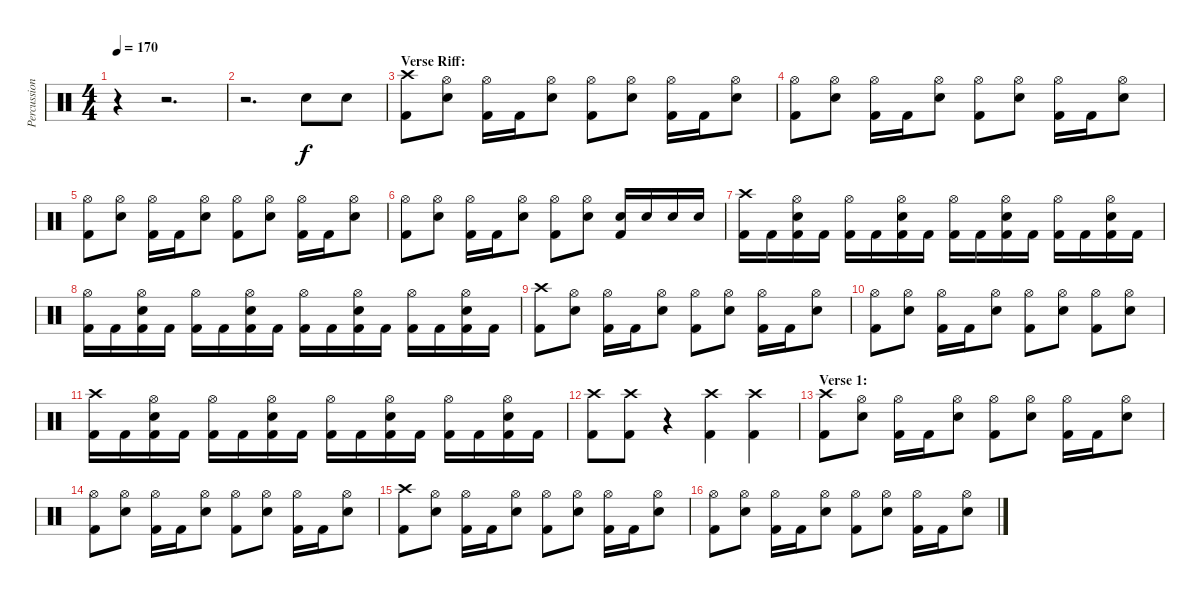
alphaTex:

\track ("Percussion" "Percussion") {instrument percussion}
\staff {score}
\articulation defaults
\ts (4 4)
\tempo 170
\clef neutral
\ks c
r.4{dy f} r.2{d} |
r.2{d} "Electric Snare (hit)".8 "Electric Snare (hit)".8 |
\section ("" "Verse Riff:")
("Crash high (hit)" "Kick (hit) 2").8 ("Hi-Hat (open)" "Electric Snare (hit)").8 ("Hi-Hat (open)" "Kick (hit) 2").16 "Kick (hit) 2".16 ("Hi-Hat (open)" "Electric Snare (hit)").8 ("Hi-Hat (open)" "Kick (hit) 2").8 ("Hi-Hat (open)" "Electric Snare (hit)").8 ("Hi-Hat (open)" "Kick (hit) 2").16 "Kick (hit) 2".16 ("Hi-Hat (open)" "Electric Snare (hit)").8 |
("Hi-Hat (open)" "Kick (hit) 2").8 ("Hi-Hat (open)" "Electric Snare (hit)").8 ("Hi-Hat (open)" "Kick (hit) 2").16 "Kick (hit) 2".16 ("Hi-Hat (open)" "Electric Snare (hit)").8 ("Hi-Hat (open)" "Kick (hit) 2").8 ("Hi-Hat (open)" "Electric Snare (hit)").8 ("Hi-Hat (open)" "Kick (hit) 2").16 "Kick (hit) 2".16 ("Hi-Hat (open)" "Electric Snare (hit)").8 |
("Hi-Hat (open)" "Kick (hit) 2").8 ("Hi-Hat (open)" "Electric Snare (hit)").8 ("Hi-Hat (open)" "Kick (hit) 2").16 "Kick (hit) 2".16 ("Hi-Hat (open)" "Electric Snare (hit)").8 ("Hi-Hat (open)" "Kick (hit) 2").8 ("Hi-Hat (open)" "Electric Snare (hit)").8 ("Hi-Hat (open)" "Kick (hit) 2").16 "Kick (hit) 2".16 ("Hi-Hat (open)" "Electric Snare (hit)").8 |
("Hi-Hat (open)" "Kick (hit) 2").8 ("Hi-Hat (open)" "Electric Snare (hit)").8 ("Hi-Hat (open)" "Kick (hit) 2").16 "Kick (hit) 2".16 ("Hi-Hat (open)" "Electric Snare (hit)").8 ("Hi-Hat (open)" "Kick (hit) 2").8 ("Hi-Hat (open)" "Electric Snare (hit)").8 ("Electric Snare (hit)" "Kick (hit) 2").16 "Electric Snare (hit)".16 "Electric Snare (hit)".16 "Electric Snare (hit)".16 |
("Crash high (hit)" "Kick (hit) 2").16 "Kick (hit) 2".16 ("Hi-Hat (open)" "Electric Snare (hit)" "Kick (hit) 2").16 "Kick (hit) 2".16 ("Hi-Hat (open)" "Kick (hit) 2").16 "Kick (hit) 2".16 ("Hi-Hat (open)" "Electric Snare (hit)" "Kick (hit) 2").16 "Kick (hit) 2".16 ("Hi-Hat (open)" "Kick (hit) 2").16 "Kick (hit) 2".16 ("Hi-Hat (open)" "Electric Snare (hit)" "Kick (hit) 2").16 "Kick (hit) 2".16 ("Hi-Hat (open)" "Kick (hit) 2").16 "Kick (hit) 2".16 ("Hi-Hat (open)" "Electric Snare (hit)" "Kick (hit) 2").16 "Kick (hit) 2".16 |
("Hi-Hat (open)" "Kick (hit) 2").16 "Kick (hit) 2".16 ("Hi-Hat (open)" "Electric Snare (hit)" "Kick (hit) 2").16 "Kick (hit) 2".16 ("Hi-Hat (open)" "Kick (hit) 2").16 "Kick (hit) 2".16 ("Hi-Hat (open)" "Electric Snare (hit)" "Kick (hit) 2").16 "Kick (hit) 2".16 ("Hi-Hat (open)" "Kick (hit) 2").16 "Kick (hit) 2".16 ("Hi-Hat (open)" "Electric Snare (hit)" "Kick (hit) 2").16 "Kick (hit) 2".16 ("Hi-Hat (open)" "Kick (hit) 2").16 "Kick (hit) 2".16 ("Hi-Hat (open)" "Electric Snare (hit)" "Kick (hit) 2").16 "Kick (hit) 2".16 |
("Crash high (hit)" "Kick (hit) 2").8 ("Hi-Hat (open)" "Electric Snare (hit)").8 ("Hi-Hat (open)" "Kick (hit) 2").16 "Kick (hit) 2".16 ("Hi-Hat (open)" "Electric Snare (hit)").8 ("Hi-Hat (open)" "Kick (hit) 2").8 ("Hi-Hat (open)" "Electric Snare (hit)").8 ("Hi-Hat (open)" "Kick (hit) 2").16 "Kick (hit) 2".16 ("Hi-Hat (open)" "Electric Snare (hit)").8 |
("Hi-Hat (open)" "Kick (hit) 2").8 ("Hi-Hat (open)" "Electric Snare (hit)").8 ("Hi-Hat (open)" "Kick (hit) 2").16 "Kick (hit) 2".16 ("Hi-Hat (open)" "Electric Snare (hit)").8 ("Hi-Hat (open)" "Kick (hit) 2").8 ("Hi-Hat (open)" "Electric Snare (hit)").8 ("Hi-Hat (open)" "Kick (hit) 2").8 ("Hi-Hat (open)" "Electric Snare (hit)").8 |
("Crash high (hit)" "Kick (hit) 2").16 "Kick (hit) 2".16 ("Hi-Hat (open)" "Electric Snare (hit)" "Kick (hit) 2").16 "Kick (hit) 2".16 ("Hi-Hat (open)" "Kick (hit) 2").16 "Kick (hit) 2".16 ("Hi-Hat (open)" "Electric Snare (hit)" "Kick (hit) 2").16 "Kick (hit) 2".16 ("Hi-Hat (open)" "Kick (hit) 2").16 "Kick (hit) 2".16 ("Hi-Hat (open)" "Electric Snare (hit)" "Kick (hit) 2").16 "Kick (hit) 2".16 ("Hi-Hat (open)" "Kick (hit) 2").16 "Kick (hit) 2".16 ("Hi-Hat (open)" "Electric Snare (hit)" "Kick (hit) 2").16 "Kick (hit) 2".16 |
("Crash high (hit)" "Kick (hit) 2").8 ("Crash high (hit)" "Kick (hit) 2").8 r.4 ("Crash high (hit)" "Kick (hit) 2").4 ("Crash high (hit)" "Kick (hit) 2").4 |
\section ("" "Verse 1:")
("Crash high (hit)" "Kick (hit) 2").8 ("Hi-Hat (open)" "Electric Snare (hit)").8 ("Hi-Hat (open)" "Kick (hit) 2").16 "Kick (hit) 2".16 ("Hi-Hat (open)" "Electric Snare (hit)").8 ("Hi-Hat (open)" "Kick (hit) 2").8 ("Hi-Hat (open)" "Electric Snare (hit)").8 ("Hi-Hat (open)" "Kick (hit) 2").16 "Kick (hit) 2".16 ("Hi-Hat (open)" "Electric Snare (hit)").8 |
("Hi-Hat (open)" "Kick (hit) 2").8 ("Hi-Hat (open)" "Electric Snare (hit)").8 ("Hi-Hat (open)" "Kick (hit) 2").16 "Kick (hit) 2".16 ("Hi-Hat (open)" "Electric Snare (hit)").8 ("Hi-Hat (open)" "Kick (hit) 2").8 ("Hi-Hat (open)" "Electric Snare (hit)").8 ("Hi-Hat (open)" "Kick (hit) 2").16 "Kick (hit) 2".16 ("Hi-Hat (open)" "Electric Snare (hit)").8 |
("Crash high (hit)" "Kick (hit) 2").8 ("Hi-Hat (open)" "Electric Snare (hit)").8 ("Hi-Hat (open)" "Kick (hit) 2").16 "Kick (hit) 2".16 ("Hi-Hat (open)" "Electric Snare (hit)").8 ("Hi-Hat (open)" "Kick (hit) 2").8 ("Hi-Hat (open)" "Electric Snare (hit)").8 ("Hi-Hat (open)" "Kick (hit) 2").16 "Kick (hit) 2".16 ("Hi-Hat (open)" "Electric Snare (hit)").8 |
("Hi-Hat (open)" "Kick (hit) 2").8 ("Hi-Hat (open)" "Electric Snare (hit)").8 ("Hi-Hat (open)" "Kick (hit) 2").16 "Kick (hit) 2".16 ("Hi-Hat (open)" "Electric Snare (hit)").8 ("Hi-Hat (open)" "Kick (hit) 2").8 ("Hi-Hat (open)" "Electric Snare (hit)").8 ("Hi-Hat (open)" "Kick (hit) 2").16 "Kick (hit) 2".16 ("Hi-Hat (open)" "Electric Snare (hit)").8
